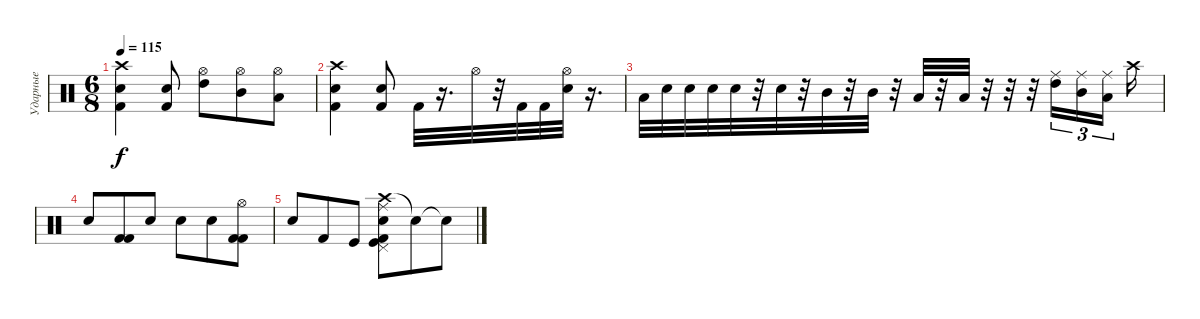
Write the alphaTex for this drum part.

\track ("Ударные" "Ударные") {instrument percussion}
\staff {score}
\articulation defaults
\ts (6 8)
\tempo 115
\clef neutral
\ks c
("Crash high (hit)" "Kick (hit) 2" "Electric Snare (hit)").4{dy f} ("Kick (hit) 2" "Electric Snare (hit)").8 ("High Tom (hit)" "Hi-Hat (open)").8 ("Mid Tom (hit)" "Hi-Hat (open)").8 ("Low Tom (hit)" "Hi-Hat (open)").8 |
("Crash high (hit)" "Kick (hit) 2" "Electric Snare (hit)").4 ("Kick (hit) 2" "Electric Snare (hit)").8 "Kick (hit) 2".32 r.16{d} "Hi-Hat (open)".32 r.32 "Kick (hit) 2".32 "Kick (hit) 2".32 ("Snare (hit) 2" "Hi-Hat (open)").32 r.16{d} |
"Low Tom (hit)".32 "Snare (hit) 2".32 "Snare (hit) 2".32 "Snare (hit) 2".32 "Snare (hit) 2".32 r.32 "Snare (hit) 2".32 r.32 "Mid Tom (hit)".32 r.32 "Mid Tom (hit)".32 r.32 "Low Tom (hit)".32 r.32 "Low Tom (hit)".32 r.32 r.32 r.32 ("High Tom (hit)" "Ride (middle)").16{tu (3 2)} ("Mid Tom (hit)" "Ride (middle)").16{tu (3 2)} ("Low Tom (hit)" "Ride (middle)").16{tu (3 2)} "Crash high (hit)".16 |
"Electric Snare (hit)".8 ("Kick (hit) 2" "Kick (hit) 2").8 "Electric Snare (hit)".8 "Electric Snare (hit)".8 "Electric Snare (hit)".8 ("Hi-Hat (open)" "Kick (hit) 2" "Kick (hit) 2").8 |
"Electric Snare (hit)".8 "Kick (hit) 2".8 "Kick (hit)".8 ("Crash high (hit)" "Electric Snare (hit)" "Ride (middle)" "Pedal Hi-Hat (hit)" "Kick (hit)" "Kick (hit) 2").8 "Snare (hit)"{t}.8 "Snare (hit)"{t}.8
